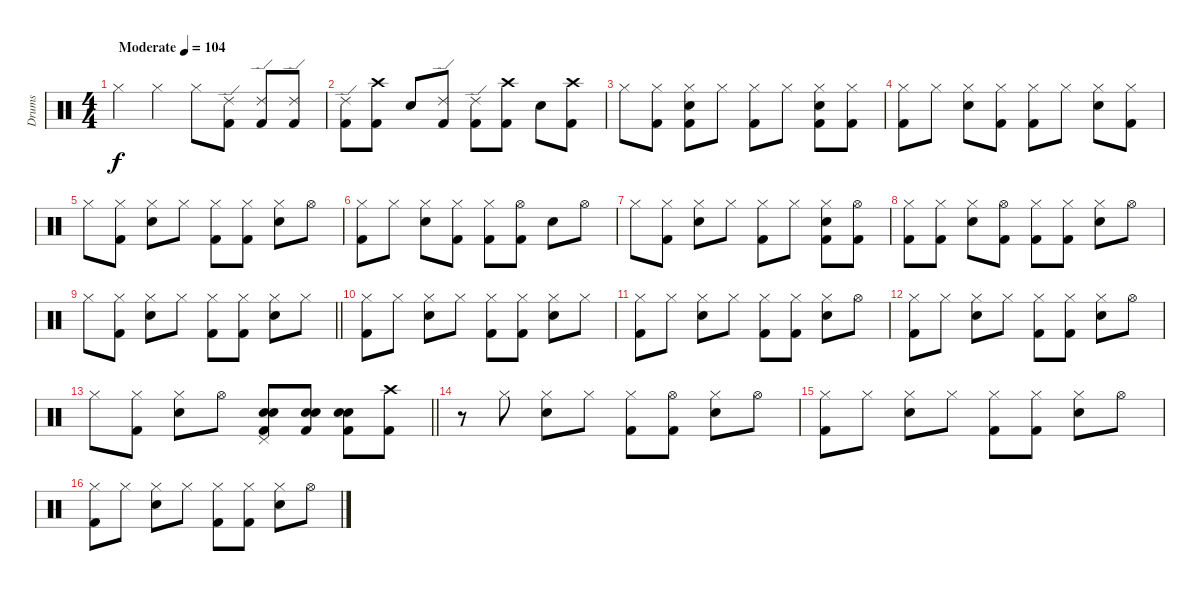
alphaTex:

\track ("Drums" "Drums") {instrument percussion}
\staff {score}
\articulation defaults
\ts (4 4)
\tempo (104 "Moderate")
\clef neutral
\ks c "Hi-Hat (closed)".4{dy f} "Hi-Hat (closed)".4 "Hi-Hat (closed)".8
("Ride (edge) 2" "Kick (hit) 2").8 ("Ride (edge) 2" "Kick (hit) 2").8 ("Ride (edge) 2" "Kick (hit) 2").8 |
("Ride (edge) 2" "Kick (hit) 2").8 ("Crash high (hit)" "Kick (hit) 2").8 "Snare (hit) 2".8 ("Ride (edge) 2" "Kick (hit) 2").8 ("Ride (edge) 2" "Kick (hit) 2").8 ("Crash high (hit)" "Kick (hit) 2").8 "Snare (hit) 2".8 ("Crash high (hit)" "Kick (hit) 2").8 |
"Hi-Hat (closed)".8 ("Hi-Hat (closed)" "Kick (hit) 2").8 ("Hi-Hat (closed)" "Snare (hit) 2" "Kick (hit) 2").8 "Hi-Hat (closed)".8 ("Hi-Hat (closed)" "Kick (hit) 2").8 "Hi-Hat (closed)".8 ("Hi-Hat (closed)" "Snare (hit) 2" "Kick (hit) 2").8 ("Hi-Hat (closed)" "Kick (hit) 2").8 |
("Hi-Hat (closed)" "Kick (hit) 2").8 "Hi-Hat (closed)".8 ("Hi-Hat (closed)" "Snare (hit) 2").8 ("Hi-Hat (closed)" "Kick (hit) 2").8 ("Hi-Hat (closed)" "Kick (hit) 2").8 "Hi-Hat (closed)".8 ("Hi-Hat (closed)" "Snare (hit) 2").8 ("Hi-Hat (closed)" "Kick (hit) 2").8 |
"Hi-Hat (closed)".8 ("Hi-Hat (closed)" "Kick (hit) 2").8 ("Hi-Hat (closed)" "Snare (hit) 2").8 "Hi-Hat (closed)".8 ("Hi-Hat (closed)" "Kick (hit) 2").8 ("Hi-Hat (closed)" "Kick (hit) 2").8 ("Hi-Hat (closed)" "Snare (hit) 2").8 "Hi-Hat (open)".8 |
("Hi-Hat (closed)" "Kick (hit) 2").8 "Hi-Hat (closed)".8 ("Hi-Hat (closed)" "Snare (hit) 2").8 ("Hi-Hat (closed)" "Kick (hit) 2").8 ("Hi-Hat (closed)" "Kick (hit) 2").8 ("Hi-Hat (open)" "Kick (hit) 2").8 "Snare (hit) 2".8 "Hi-Hat (open)".8 |
"Hi-Hat (closed)".8 ("Hi-Hat (closed)" "Kick (hit) 2").8 ("Hi-Hat (closed)" "Snare (hit) 2").8 "Hi-Hat (closed)".8 ("Hi-Hat (closed)" "Kick (hit) 2").8 "Hi-Hat (closed)".8 ("Hi-Hat (closed)" "Snare (hit) 2" "Kick (hit) 2").8 ("Hi-Hat (open)" "Kick (hit) 2").8 |
("Hi-Hat (closed)" "Kick (hit) 2").8 ("Hi-Hat (closed)" "Kick (hit) 2").8 ("Hi-Hat (closed)" "Snare (hit) 2").8 ("Hi-Hat (open)" "Kick (hit) 2").8 ("Hi-Hat (closed)" "Kick (hit) 2").8 ("Hi-Hat (closed)" "Kick (hit) 2").8 ("Hi-Hat (closed)" "Snare (hit) 2").8 "Hi-Hat (open)".8 |
\barLineRight lightlight "Hi-Hat (closed)".8
("Hi-Hat (closed)" "Kick (hit) 2").8 ("Hi-Hat (closed)" "Snare (hit) 2").8 "Hi-Hat (closed)".8 ("Hi-Hat (closed)" "Kick (hit) 2").8 ("Hi-Hat (closed)" "Kick (hit) 2").8 ("Hi-Hat (closed)" "Snare (hit) 2").8 "Hi-Hat (closed)".8 |
\section ("" "")
("Hi-Hat (closed)" "Kick (hit) 2").8 "Hi-Hat (closed)".8 ("Hi-Hat (closed)" "Snare (hit) 2").8 "Hi-Hat (closed)".8 ("Hi-Hat (closed)" "Kick (hit) 2").8 ("Hi-Hat (closed)" "Kick (hit) 2").8 ("Hi-Hat (closed)" "Snare (hit) 2").8 "Hi-Hat (closed)".8 |
("Hi-Hat (closed)" "Kick (hit) 2").8 "Hi-Hat (closed)".8 ("Hi-Hat (closed)" "Snare (hit) 2").8 "Hi-Hat (closed)".8 ("Hi-Hat (closed)" "Kick (hit) 2").8 ("Hi-Hat (closed)" "Kick (hit) 2").8 ("Hi-Hat (closed)" "Snare (hit) 2").8 "Hi-Hat (open)".8 |
("Hi-Hat (closed)" "Kick (hit) 2").8 "Hi-Hat (closed)".8 ("Hi-Hat (closed)" "Snare (hit) 2").8 "Hi-Hat (closed)".8 ("Hi-Hat (closed)" "Kick (hit) 2").8 ("Hi-Hat (closed)" "Kick (hit) 2").8 ("Hi-Hat (closed)" "Snare (hit) 2").8 "Hi-Hat (open)".8 |
\barLineRight lightlight "Hi-Hat (closed)".8
("Hi-Hat (closed)" "Kick (hit) 2").8 ("Hi-Hat (closed)" "Snare (hit) 2").8 "Hi-Hat (open)".8 ("Pedal Hi-Hat (hit)" "Snare (hit) 2" "Electric Snare (hit)" "Kick (hit) 2").8 ("Snare (hit) 2" "Electric Snare (hit)" "Kick (hit) 2").8 ("Snare (hit) 2" "Electric Snare (hit)" "Kick (hit) 2").8 ("Crash high (hit)" "Kick (hit) 2").8 |
\section ("" "")
r.8 "Hi-Hat (closed)".8 ("Hi-Hat (closed)" "Snare (hit) 2").8 "Hi-Hat (closed)".8 ("Hi-Hat (closed)" "Kick (hit) 2").8 ("Hi-Hat (open)" "Kick (hit) 2").8 ("Hi-Hat (closed)" "Snare (hit) 2").8 "Hi-Hat (open)".8 |
("Hi-Hat (closed)" "Kick (hit) 2").8 "Hi-Hat (closed)".8 ("Hi-Hat (closed)" "Snare (hit) 2").8 "Hi-Hat (closed)".8 ("Hi-Hat (closed)" "Kick (hit) 2").8 ("Hi-Hat (closed)" "Kick (hit) 2").8 ("Hi-Hat (closed)" "Snare (hit) 2").8 "Hi-Hat (open)".8 |
("Hi-Hat (closed)" "Kick (hit) 2").8 "Hi-Hat (closed)".8 ("Hi-Hat (closed)" "Snare (hit) 2").8 "Hi-Hat (closed)".8 ("Hi-Hat (closed)" "Kick (hit) 2").8 ("Hi-Hat (closed)" "Kick (hit) 2").8 ("Hi-Hat (closed)" "Snare (hit) 2").8 "Hi-Hat (open)".8
